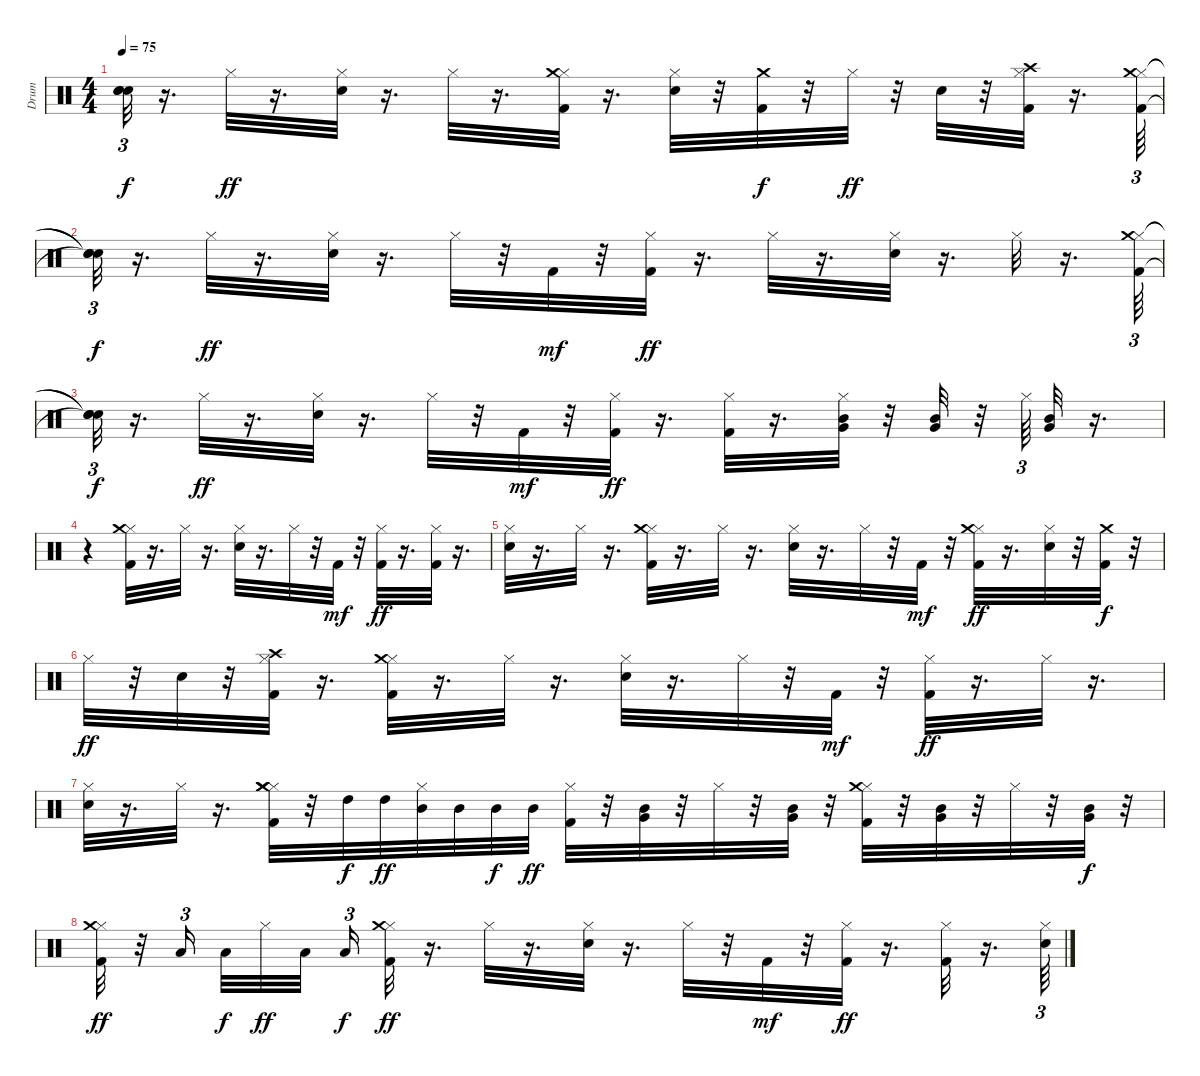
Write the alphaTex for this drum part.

\track ("Drum" "Drum") {instrument percussion}
\staff {score}
\articulation defaults
\ts (4 4)
\tempo 75
\clef neutral
\ks c
("Snare (hit)"{t} "Snare (hit)"{t} "Snare (hit)"{t}).32{tu (3 2) dy f} r.16{d} "Hi-Hat (closed)".32{dy ff} r.16{d} ("Hi-Hat (closed)" "Snare (hit) 2").32 r.16{d} "Hi-Hat (closed)".32 r.16{d} ("Kick (hit) 2" "Hi-Hat (closed)" "Crash medium (hit)").32 r.16{d} ("Hi-Hat (closed)" "Snare (hit) 2").32 r.32 ("Kick (hit) 2" "Crash medium (hit)").32{dy f} r.32 "Hi-Hat (closed)".32{dy ff} r.32 "Snare (hit) 2".32 r.32 ("Kick (hit) 2" "Hi-Hat (closed)" "Crash high (hit)").32 r.16{d} ("Kick (hit) 2" "Hi-Hat (closed)" "Crash medium (hit)").64{tu (3 2)} |
("Snare (hit)"{t} "Snare (hit)"{t} "Snare (hit)"{t}).32{tu (3 2) dy f} r.16{d} "Hi-Hat (closed)".32{dy ff} r.16{d} ("Hi-Hat (closed)" "Snare (hit) 2").32 r.16{d} "Hi-Hat (closed)".32 r.32 "Kick (hit) 2".32{dy mf} r.32 ("Kick (hit) 2" "Hi-Hat (closed)").32{dy ff} r.16{d} "Hi-Hat (closed)".32 r.16{d} ("Hi-Hat (closed)" "Snare (hit) 2").32 r.16{d} "Hi-Hat (closed)".32 r.16{d} ("Kick (hit) 2" "Hi-Hat (closed)" "Crash medium (hit)").64{tu (3 2)} |
("Snare (hit)"{t} "Snare (hit)"{t} "Snare (hit)"{t}).32{tu (3 2) dy f} r.16{d} "Hi-Hat (closed)".32{dy ff} r.16{d} ("Hi-Hat (closed)" "Snare (hit) 2").32 r.16{d} "Hi-Hat (closed)".32 r.32 "Kick (hit) 2".32{dy mf} r.32 ("Kick (hit) 2" "Hi-Hat (closed)").32{dy ff} r.16{d} ("Kick (hit) 2" "Hi-Hat (closed)").32 r.16{d} ("Hi-Hat (closed)" "Very Low Tom (hit)" "Mid Tom (hit)").32 r.32 ("Mid Tom (hit)" "Very Low Tom (hit)").32 r.32 "Hi-Hat (closed)".64{tu (3 2)} ("Very Low Tom (hit)" "Mid Tom (hit)").32 r.16{d} |
r.4 ("Kick (hit) 2" "Hi-Hat (closed)" "Crash medium (hit)").32 r.16{d} "Hi-Hat (closed)".32 r.16{d} ("Hi-Hat (closed)" "Snare (hit) 2").32 r.16{d} "Hi-Hat (closed)".32 r.32 "Kick (hit) 2".32{dy mf} r.32 ("Kick (hit) 2" "Hi-Hat (closed)").32{dy ff} r.16{d} ("Kick (hit) 2" "Hi-Hat (closed)").32 r.16{d} |
("Hi-Hat (closed)" "Snare (hit) 2").32 r.16{d} "Hi-Hat (closed)".32 r.16{d} ("Kick (hit) 2" "Hi-Hat (closed)" "Crash medium (hit)").32 r.16{d} "Hi-Hat (closed)".32 r.16{d} ("Hi-Hat (closed)" "Snare (hit) 2").32 r.16{d} "Hi-Hat (closed)".32 r.32 "Kick (hit) 2".32{dy mf} r.32 ("Kick (hit) 2" "Hi-Hat (closed)" "Crash medium (hit)").32{dy ff} r.16{d} ("Hi-Hat (closed)" "Snare (hit) 2").32 r.32 ("Kick (hit) 2" "Crash medium (hit)").32{dy f} r.32 |
"Hi-Hat (closed)".32{dy ff} r.32 "Snare (hit) 2".32 r.32 ("Kick (hit) 2" "Hi-Hat (closed)" "Crash high (hit)").32 r.16{d} ("Kick (hit) 2" "Hi-Hat (closed)" "Crash medium (hit)").32 r.16{d} "Hi-Hat (closed)".32 r.16{d} ("Hi-Hat (closed)" "Snare (hit) 2").32 r.16{d} "Hi-Hat (closed)".32 r.32 "Kick (hit) 2".32{dy mf} r.32 ("Kick (hit) 2" "Hi-Hat (closed)").32{dy ff} r.16{d} "Hi-Hat (closed)".32 r.16{d} |
("Hi-Hat (closed)" "Snare (hit) 2").32 r.16{d} "Hi-Hat (closed)".32 r.16{d} ("Kick (hit) 2" "Hi-Hat (closed)" "Crash medium (hit)" "Crash medium (hit)").32 r.32 "High Tom (hit)".32{dy f} "High Tom (hit)".32{dy ff} ("Hi-Hat (closed)" "Mid Tom (hit)").32 "Mid Tom (hit)".32 "Mid Tom (hit)".32{dy f} "Mid Tom (hit)".32{dy ff} ("Kick (hit) 2" "Hi-Hat (closed)").32 r.32 ("Mid Tom (hit)" "Very Low Tom (hit)").32 r.32 "Hi-Hat (closed)".32 r.32 ("Very Low Tom (hit)" "Mid Tom (hit)").32 r.32 ("Kick (hit) 2" "Hi-Hat (closed)" "Crash medium (hit)").32 r.32 ("Mid Tom (hit)" "Very Low Tom (hit)").32 r.32 "Hi-Hat (closed)".32 r.32 ("Very Low Tom (hit)" "Mid Tom (hit)").32{dy f} r.32 |
("Kick (hit) 2" "Hi-Hat (closed)" "Crash medium (hit)").32{dy ff} r.32 "Low Tom (hit)".16{tu (3 2) beam splitsecondary} "Low Tom (hit)".32{dy f} "Hi-Hat (closed)".32{dy ff} "Low Tom (hit)".32{beam splitsecondary} "Low Tom (hit)".16{tu (3 2) dy f} ("Kick (hit) 2" "Hi-Hat (closed)" "Crash medium (hit)").32{dy ff} r.16{d} "Hi-Hat (closed)".32 r.16{d} ("Hi-Hat (closed)" "Snare (hit) 2").32 r.16{d} "Hi-Hat (closed)".32 r.32 "Kick (hit) 2".32{dy mf} r.32 ("Kick (hit) 2" "Hi-Hat (closed)").32{dy ff} r.16{d} ("Kick (hit) 2" "Hi-Hat (closed)").32 r.16{d} ("Hi-Hat (closed)" "Snare (hit) 2").64{tu (3 2)}
